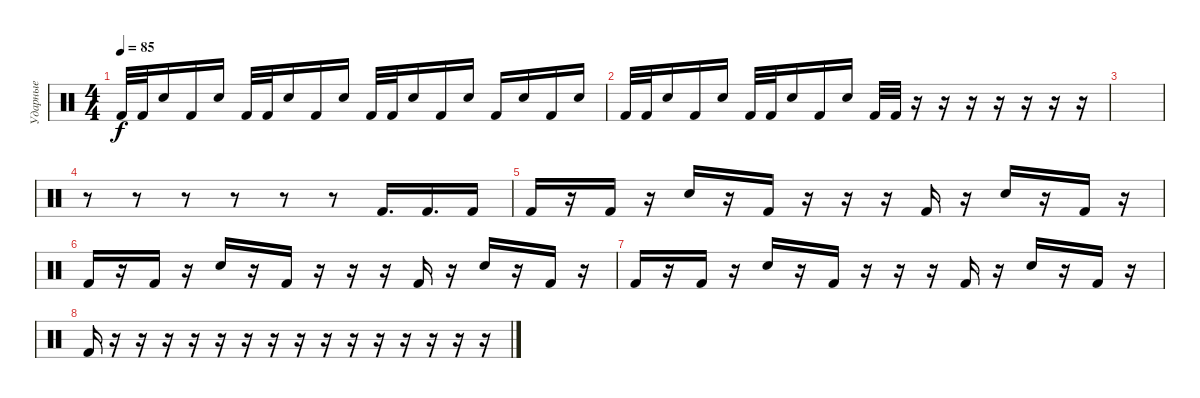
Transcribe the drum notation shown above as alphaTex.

\track ("Ударные" "Ударные") {instrument percussion}
\staff {score}
\articulation defaults
\ts (4 4)
\tempo 85
\clef neutral
\ks c "Kick (hit) 2".32{dy f} "Kick (hit) 2".32 "Electric Snare (hit)".16 "Kick (hit) 2".16 "Electric Snare (hit)".16 "Kick (hit) 2".32 "Kick (hit) 2".32 "Electric Snare (hit)".16 "Kick (hit) 2".16 "Electric Snare (hit)".16 "Kick (hit) 2".32 "Kick (hit) 2".32 "Electric Snare (hit)".16 "Kick (hit) 2".16 "Electric Snare (hit)".16 "Kick (hit) 2".16 "Electric Snare (hit)".16 "Kick (hit) 2".16 "Electric Snare (hit)".16
|
"Kick (hit) 2".32 "Kick (hit) 2".32 "Electric Snare (hit)".16 "Kick (hit) 2".16 "Electric Snare (hit)".16 "Kick (hit) 2".32 "Kick (hit) 2".32 "Electric Snare (hit)".16 "Kick (hit) 2".16 "Electric Snare (hit)".16 "Kick (hit) 2".32 "Kick (hit) 2".32 r.16 r.16 r.16 r.16 r.16 r.16 r.16 |
|
r.8 r.8 r.8 r.8 r.8 r.8 "Kick (hit) 2".16{d} "Kick (hit) 2".16{d} "Kick (hit) 2".16 |
"Kick (hit) 2".16 r.16 "Kick (hit) 2".16 r.16 "Electric Snare (hit)".16 r.16 "Kick (hit) 2".16 r.16 r.16 r.16 "Kick (hit) 2".16 r.16 "Electric Snare (hit)".16 r.16 "Kick (hit) 2".16 r.16 |
"Kick (hit) 2".16 r.16 "Kick (hit) 2".16 r.16 "Electric Snare (hit)".16 r.16 "Kick (hit) 2".16 r.16 r.16 r.16 "Kick (hit) 2".16 r.16 "Electric Snare (hit)".16 r.16 "Kick (hit) 2".16 r.16 |
"Kick (hit) 2".16 r.16 "Kick (hit) 2".16 r.16 "Electric Snare (hit)".16 r.16 "Kick (hit) 2".16 r.16 r.16 r.16 "Kick (hit) 2".16 r.16 "Electric Snare (hit)".16 r.16 "Kick (hit) 2".16 r.16 |
"Kick (hit) 2".16 r.16 r.16 r.16 r.16 r.16 r.16 r.16 r.16 r.16 r.16 r.16 r.16 r.16 r.16 r.16
